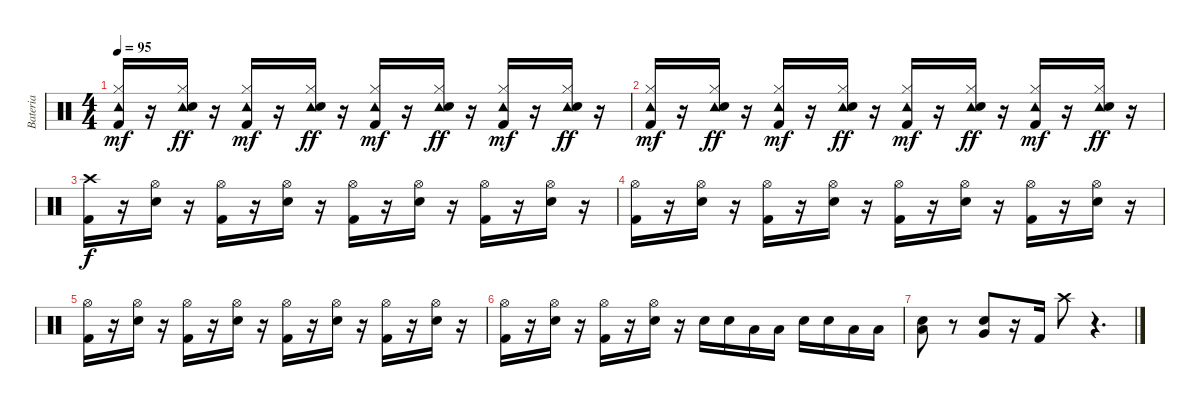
\track ("Bateria" "Bateria") {instrument percussion}
\staff {score}
\articulation defaults
\ts (4 4)
\tempo 95
\clef neutral
\ks c
("Tambourine (hit)" "Hi-Hat (closed)" "Kick (hit) 2").16{dy mf} r.16 ("Tambourine (hit)" "Hi-Hat (closed)" "Snare (hit) 2").16{dy ff} r.16 ("Tambourine (hit)" "Hi-Hat (closed)" "Kick (hit) 2").16{dy mf} r.16 ("Tambourine (hit)" "Hi-Hat (closed)" "Snare (hit) 2").16{dy ff} r.16 ("Tambourine (hit)" "Hi-Hat (closed)" "Kick (hit) 2").16{dy mf} r.16 ("Tambourine (hit)" "Hi-Hat (closed)" "Snare (hit) 2").16{dy ff} r.16 ("Tambourine (hit)" "Hi-Hat (closed)" "Kick (hit) 2").16{dy mf} r.16 ("Tambourine (hit)" "Hi-Hat (closed)" "Snare (hit) 2").16{dy ff} r.16 |
("Tambourine (hit)" "Hi-Hat (closed)" "Kick (hit) 2").16{dy mf} r.16 ("Tambourine (hit)" "Hi-Hat (closed)" "Snare (hit) 2").16{dy ff} r.16 ("Tambourine (hit)" "Hi-Hat (closed)" "Kick (hit) 2").16{dy mf} r.16 ("Tambourine (hit)" "Hi-Hat (closed)" "Snare (hit) 2").16{dy ff} r.16 ("Tambourine (hit)" "Hi-Hat (closed)" "Kick (hit) 2").16{dy mf} r.16 ("Tambourine (hit)" "Hi-Hat (closed)" "Snare (hit) 2").16{dy ff} r.16 ("Tambourine (hit)" "Hi-Hat (closed)" "Kick (hit) 2").16{dy mf} r.16 ("Tambourine (hit)" "Hi-Hat (closed)" "Snare (hit) 2").16{dy ff} r.16 |
("Crash high (hit)" "Kick (hit) 2").16{dy f} r.16 ("Hi-Hat (open)" "Snare (hit) 2").16 r.16 ("Hi-Hat (open)" "Kick (hit) 2").16 r.16 ("Hi-Hat (open)" "Snare (hit) 2").16 r.16 ("Hi-Hat (open)" "Kick (hit) 2").16 r.16 ("Hi-Hat (open)" "Snare (hit) 2").16 r.16 ("Hi-Hat (open)" "Kick (hit) 2").16 r.16 ("Hi-Hat (open)" "Snare (hit) 2").16 r.16 |
("Hi-Hat (open)" "Kick (hit) 2").16 r.16 ("Hi-Hat (open)" "Snare (hit) 2").16 r.16 ("Hi-Hat (open)" "Kick (hit) 2").16 r.16 ("Hi-Hat (open)" "Snare (hit) 2").16 r.16 ("Hi-Hat (open)" "Kick (hit) 2").16 r.16 ("Hi-Hat (open)" "Snare (hit) 2").16 r.16 ("Hi-Hat (open)" "Kick (hit) 2").16 r.16 ("Hi-Hat (open)" "Snare (hit) 2").16 r.16 |
("Hi-Hat (open)" "Kick (hit) 2").16 r.16 ("Hi-Hat (open)" "Snare (hit) 2").16 r.16 ("Hi-Hat (open)" "Kick (hit) 2").16 r.16 ("Hi-Hat (open)" "Snare (hit) 2").16 r.16 ("Hi-Hat (open)" "Kick (hit) 2").16 r.16 ("Hi-Hat (open)" "Snare (hit) 2").16 r.16 ("Hi-Hat (open)" "Kick (hit) 2").16 r.16 ("Hi-Hat (open)" "Snare (hit) 2").16 r.16 |
("Hi-Hat (open)" "Kick (hit) 2").16 r.16 ("Hi-Hat (open)" "Snare (hit) 2").16 r.16 ("Hi-Hat (open)" "Kick (hit) 2").16 r.16 ("Hi-Hat (open)" "Snare (hit) 2").16 r.16 "Snare (hit) 2".16 "Snare (hit) 2".16 "Low Tom (hit)".16 "Low Tom (hit)".16 "Snare (hit) 2".16 "Snare (hit) 2".16 "Low Tom (hit)".16 "Low Tom (hit)".16 |
("Low Tom (hit)" "Snare (hit) 2").8 r.8 ("Very Low Tom (hit)" "Snare (hit) 2").8 r.16 "Kick (hit) 2".16 "Crash high (hit)".8 r.4{d}
